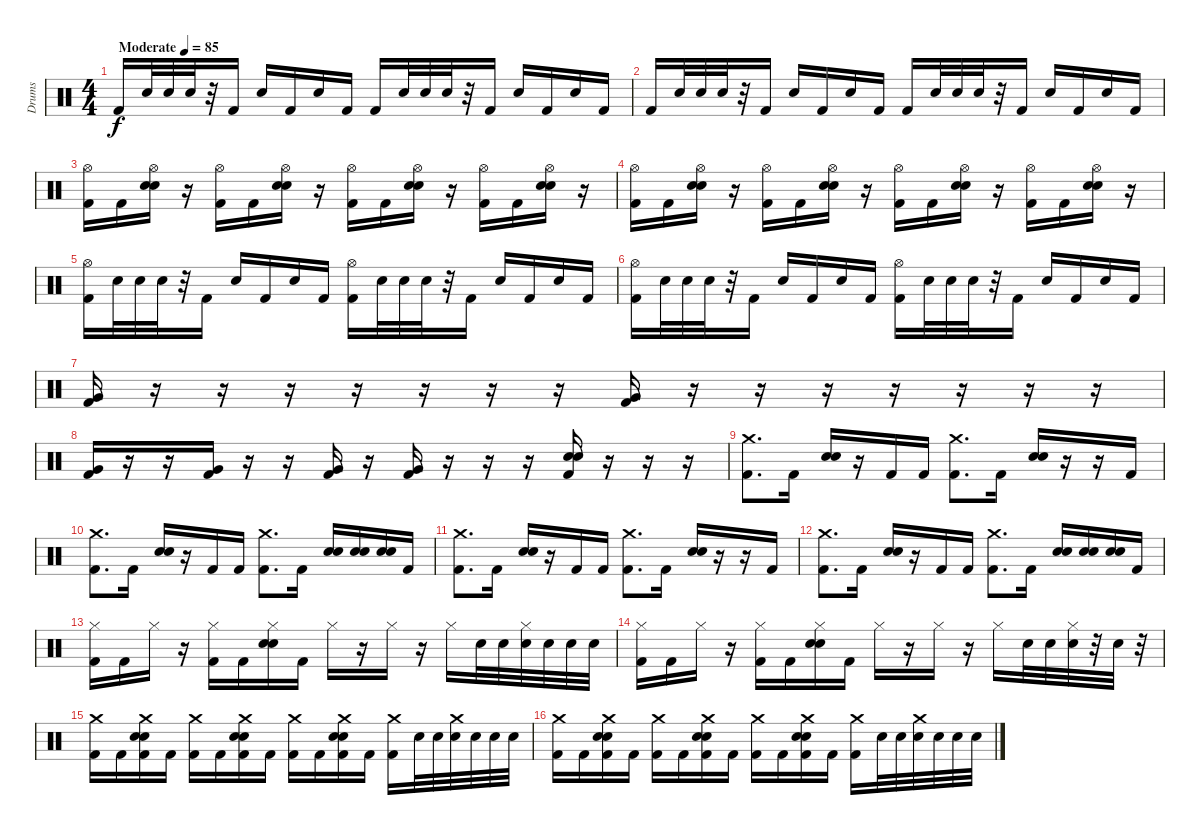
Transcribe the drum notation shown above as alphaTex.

\track ("Drums" "Drums") {instrument percussion}
\staff {score}
\articulation defaults
\ts (4 4)
\tempo (85 "Moderate")
\clef neutral
\ks c "Kick (hit) 2".16{dy f} "Electric Snare (hit)".32 "Electric Snare (hit)".32 "Electric Snare (hit)".32
r.32 "Kick (hit) 2".16 "Electric Snare (hit)".16 "Kick (hit) 2".16 "Electric Snare (hit)".16 "Kick (hit) 2".16 "Kick (hit) 2".16 "Electric Snare (hit)".32 "Electric Snare (hit)".32 "Electric Snare (hit)".32 r.32 "Kick (hit) 2".16 "Electric Snare (hit)".16 "Kick (hit) 2".16 "Electric Snare (hit)".16 "Kick (hit) 2".16 |
"Kick (hit) 2".16 "Electric Snare (hit)".32 "Electric Snare (hit)".32 "Electric Snare (hit)".32 r.32 "Kick (hit) 2".16 "Electric Snare (hit)".16 "Kick (hit) 2".16 "Electric Snare (hit)".16 "Kick (hit) 2".16 "Kick (hit) 2".16 "Electric Snare (hit)".32 "Electric Snare (hit)".32 "Electric Snare (hit)".32 r.32 "Kick (hit) 2".16 "Electric Snare (hit)".16 "Kick (hit) 2".16 "Electric Snare (hit)".16 "Kick (hit) 2".16 |
("Hi-Hat (open)" "Kick (hit) 2").16 "Kick (hit) 2".16 ("Hi-Hat (open)" "Electric Snare (hit)" "Electric Snare (hit)").16 r.16 ("Hi-Hat (open)" "Kick (hit) 2").16 "Kick (hit) 2".16 ("Hi-Hat (open)" "Electric Snare (hit)" "Electric Snare (hit)").16 r.16 ("Hi-Hat (open)" "Kick (hit) 2").16 "Kick (hit) 2".16 ("Hi-Hat (open)" "Electric Snare (hit)" "Electric Snare (hit)").16 r.16 ("Hi-Hat (open)" "Kick (hit) 2").16 "Kick (hit) 2".16 ("Hi-Hat (open)" "Electric Snare (hit)" "Electric Snare (hit)").16 r.16 |
("Hi-Hat (open)" "Kick (hit) 2").16 "Kick (hit) 2".16 ("Hi-Hat (open)" "Electric Snare (hit)" "Electric Snare (hit)").16 r.16 ("Hi-Hat (open)" "Kick (hit) 2").16 "Kick (hit) 2".16 ("Hi-Hat (open)" "Electric Snare (hit)" "Electric Snare (hit)").16 r.16 ("Hi-Hat (open)" "Kick (hit) 2").16 "Kick (hit) 2".16 ("Hi-Hat (open)" "Electric Snare (hit)" "Electric Snare (hit)").16 r.16 ("Hi-Hat (open)" "Kick (hit) 2").16 "Kick (hit) 2".16 ("Hi-Hat (open)" "Electric Snare (hit)" "Electric Snare (hit)").16 r.16 |
("Hi-Hat (open)" "Kick (hit) 2").16 "Electric Snare (hit)".32 "Electric Snare (hit)".32 "Electric Snare (hit)".32 r.32 "Kick (hit) 2".16 "Electric Snare (hit)".16 "Kick (hit) 2".16 "Electric Snare (hit)".16 "Kick (hit) 2".16 ("Hi-Hat (open)" "Kick (hit) 2").16 "Electric Snare (hit)".32 "Electric Snare (hit)".32 "Electric Snare (hit)".32 r.32 "Kick (hit) 2".16 "Electric Snare (hit)".16 "Kick (hit) 2".16 "Electric Snare (hit)".16 "Kick (hit) 2".16 |
("Hi-Hat (open)" "Kick (hit) 2").16 "Electric Snare (hit)".32 "Electric Snare (hit)".32 "Electric Snare (hit)".32 r.32 "Kick (hit) 2".16 "Electric Snare (hit)".16 "Kick (hit) 2".16 "Electric Snare (hit)".16 "Kick (hit) 2".16 ("Hi-Hat (open)" "Kick (hit) 2").16 "Electric Snare (hit)".32 "Electric Snare (hit)".32 "Electric Snare (hit)".32 r.32 "Kick (hit) 2".16 "Electric Snare (hit)".16 "Kick (hit) 2".16 "Electric Snare (hit)".16 "Kick (hit) 2".16 |
("Very Low Tom (hit)" "Kick (hit) 2").16 r.16 r.16 r.16 r.16 r.16 r.16 r.16 ("Very Low Tom (hit)" "Kick (hit) 2").16 r.16 r.16 r.16 r.16 r.16 r.16 r.16 |
("Very Low Tom (hit)" "Kick (hit) 2").16 r.16 r.16 ("Very Low Tom (hit)" "Kick (hit) 2").16 r.16 r.16 ("Very Low Tom (hit)" "Kick (hit) 2").16 r.16 ("Very Low Tom (hit)" "Kick (hit) 2").16 r.16 r.16 r.16 ("Electric Snare (hit)" "Electric Snare (hit)" "Kick (hit) 2").16 r.16 r.16 r.16 |
("Crash medium (hit)" "Kick (hit) 2").8{d} "Kick (hit) 2".16 ("Electric Snare (hit)" "Electric Snare (hit)").16 r.16 "Kick (hit) 2".16 "Kick (hit) 2".16 ("Crash medium (hit)" "Kick (hit) 2").8{d} "Kick (hit) 2".16 ("Electric Snare (hit)" "Electric Snare (hit)").16 r.16 r.16 "Kick (hit) 2".16 |
("Crash medium (hit)" "Kick (hit) 2").8{d} "Kick (hit) 2".16 ("Electric Snare (hit)" "Electric Snare (hit)").16 r.16 "Kick (hit) 2".16 "Kick (hit) 2".16 ("Crash medium (hit)" "Kick (hit) 2").8{d} "Kick (hit) 2".16 ("Electric Snare (hit)" "Electric Snare (hit)").16 ("Electric Snare (hit)" "Electric Snare (hit)").16 ("Electric Snare (hit)" "Electric Snare (hit)").16 "Kick (hit) 2".16 |
("Crash medium (hit)" "Kick (hit) 2").8{d} "Kick (hit) 2".16 ("Electric Snare (hit)" "Electric Snare (hit)").16 r.16 "Kick (hit) 2".16 "Kick (hit) 2".16 ("Crash medium (hit)" "Kick (hit) 2").8{d} "Kick (hit) 2".16 ("Electric Snare (hit)" "Electric Snare (hit)").16 r.16 r.16 "Kick (hit) 2".16 |
("Crash medium (hit)" "Kick (hit) 2").8{d} "Kick (hit) 2".16 ("Electric Snare (hit)" "Electric Snare (hit)").16 r.16 "Kick (hit) 2".16 "Kick (hit) 2".16 ("Crash medium (hit)" "Kick (hit) 2").8{d} "Kick (hit) 2".16 ("Electric Snare (hit)" "Electric Snare (hit)").16 ("Electric Snare (hit)" "Electric Snare (hit)").16 ("Electric Snare (hit)" "Electric Snare (hit)").16 "Kick (hit) 2".16 |
("Hi-Hat (closed)" "Kick (hit) 2").16 "Kick (hit) 2".16 "Hi-Hat (closed)".16 r.16 ("Hi-Hat (closed)" "Kick (hit) 2").16 "Kick (hit) 2".16 ("Hi-Hat (closed)" "Electric Snare (hit)" "Electric Snare (hit)").16 "Kick (hit) 2".16 "Hi-Hat (closed)".16 r.16 "Hi-Hat (closed)".16 r.16 "Hi-Hat (closed)".16 "Electric Snare (hit)".32 "Electric Snare (hit)".32 ("Hi-Hat (closed)" "Electric Snare (hit)").32 "Electric Snare (hit)".32 "Electric Snare (hit)".32 "Electric Snare (hit)".32 |
("Hi-Hat (closed)" "Kick (hit) 2").16 "Kick (hit) 2".16 "Hi-Hat (closed)".16 r.16 ("Hi-Hat (closed)" "Kick (hit) 2").16 "Kick (hit) 2".16 ("Hi-Hat (closed)" "Electric Snare (hit)" "Electric Snare (hit)").16 "Kick (hit) 2".16 "Hi-Hat (closed)".16 r.16 "Hi-Hat (closed)".16 r.16 "Hi-Hat (closed)".16 "Electric Snare (hit)".32 "Electric Snare (hit)".32 ("Hi-Hat (closed)" "Electric Snare (hit)").32 r.32 "Electric Snare (hit)".32 r.32 |
("Crash medium (hit)" "Kick (hit) 2").16 "Kick (hit) 2".16 ("Crash medium (hit)" "Electric Snare (hit)" "Electric Snare (hit)" "Kick (hit) 2").16 "Kick (hit) 2".16 ("Crash medium (hit)" "Kick (hit) 2").16 "Kick (hit) 2".16 ("Crash medium (hit)" "Electric Snare (hit)" "Electric Snare (hit)" "Kick (hit) 2").16 "Kick (hit) 2".16 ("Crash medium (hit)" "Kick (hit) 2").16 "Kick (hit) 2".16 ("Crash medium (hit)" "Electric Snare (hit)" "Electric Snare (hit)" "Kick (hit) 2").16 "Kick (hit) 2".16 ("Crash medium (hit)" "Kick (hit) 2").16 "Electric Snare (hit)".32 "Electric Snare (hit)".32 ("Crash medium (hit)" "Electric Snare (hit)").32 "Electric Snare (hit)".32 "Electric Snare (hit)".32 "Electric Snare (hit)".32 |
("Crash medium (hit)" "Kick (hit) 2").16 "Kick (hit) 2".16 ("Crash medium (hit)" "Electric Snare (hit)" "Electric Snare (hit)" "Kick (hit) 2").16 "Kick (hit) 2".16 ("Crash medium (hit)" "Kick (hit) 2").16 "Kick (hit) 2".16 ("Crash medium (hit)" "Electric Snare (hit)" "Electric Snare (hit)" "Kick (hit) 2").16 "Kick (hit) 2".16 ("Crash medium (hit)" "Kick (hit) 2").16 "Kick (hit) 2".16 ("Crash medium (hit)" "Electric Snare (hit)" "Electric Snare (hit)" "Kick (hit) 2").16 "Kick (hit) 2".16 ("Crash medium (hit)" "Kick (hit) 2").16 "Electric Snare (hit)".32 "Electric Snare (hit)".32 ("Crash medium (hit)" "Electric Snare (hit)").32 "Electric Snare (hit)".32 "Electric Snare (hit)".32 "Electric Snare (hit)".32
